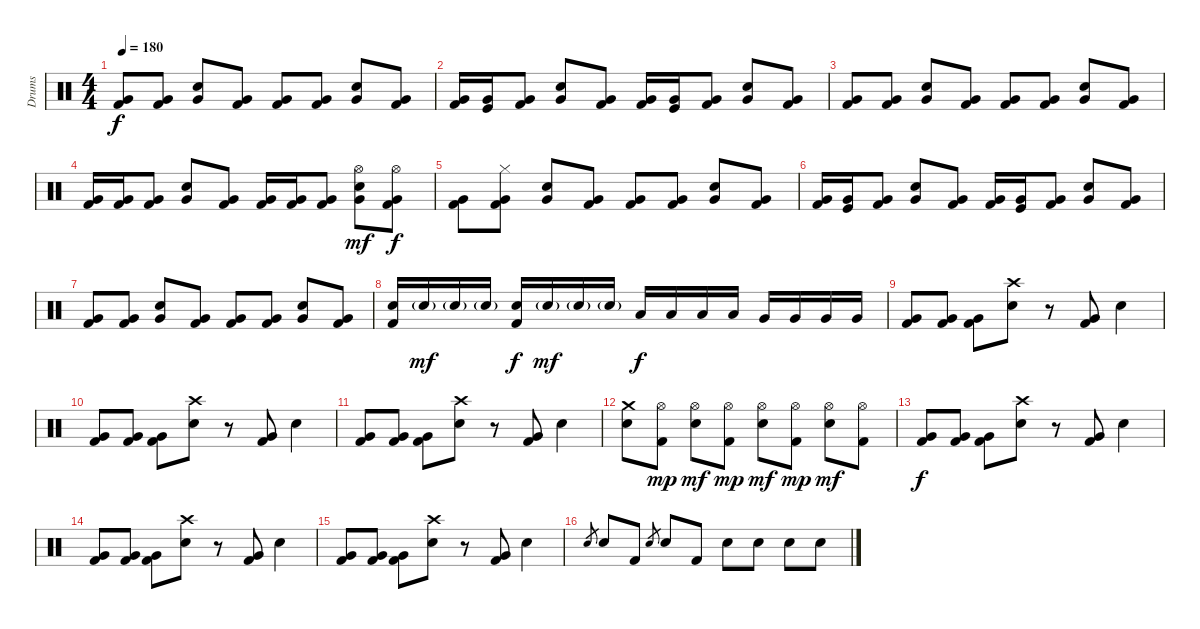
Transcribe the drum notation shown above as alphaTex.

\track ("Drums" "Drums") {instrument percussion}
\staff {score}
\articulation defaults
\ts (4 4)
\tempo 180
\clef neutral
\ks c
("Very Low Tom (hit)" "Kick (hit) 2").8{dy f} ("Very Low Tom (hit)" "Kick (hit) 2").8 ("Electric Snare (hit)" "Very Low Tom (hit)").8 ("Very Low Tom (hit)" "Kick (hit) 2").8 ("Very Low Tom (hit)" "Kick (hit) 2").8 ("Very Low Tom (hit)" "Kick (hit) 2").8 ("Electric Snare (hit)" "Very Low Tom (hit)").8 ("Very Low Tom (hit)" "Kick (hit) 2").8 |
("Very Low Tom (hit)" "Kick (hit) 2").16 ("Very Low Tom (hit)" "Kick (hit)").16 ("Very Low Tom (hit)" "Kick (hit) 2").8 ("Electric Snare (hit)" "Very Low Tom (hit)").8 ("Very Low Tom (hit)" "Kick (hit) 2").8 ("Very Low Tom (hit)" "Kick (hit) 2").16 ("Very Low Tom (hit)" "Kick (hit)").16 ("Very Low Tom (hit)" "Kick (hit) 2").8 ("Electric Snare (hit)" "Very Low Tom (hit)").8 ("Very Low Tom (hit)" "Kick (hit) 2").8 |
("Very Low Tom (hit)" "Kick (hit) 2").8 ("Very Low Tom (hit)" "Kick (hit) 2").8 ("Electric Snare (hit)" "Very Low Tom (hit)").8 ("Very Low Tom (hit)" "Kick (hit) 2").8 ("Very Low Tom (hit)" "Kick (hit) 2").8 ("Very Low Tom (hit)" "Kick (hit) 2").8 ("Electric Snare (hit)" "Very Low Tom (hit)").8 ("Very Low Tom (hit)" "Kick (hit) 2").8 |
("Very Low Tom (hit)" "Kick (hit) 2").16 ("Very Low Tom (hit)" "Kick (hit) 2").16 ("Very Low Tom (hit)" "Kick (hit) 2").8 ("Electric Snare (hit)" "Very Low Tom (hit)").8 ("Very Low Tom (hit)" "Kick (hit) 2").8 ("Very Low Tom (hit)" "Kick (hit) 2").16 ("Very Low Tom (hit)" "Kick (hit) 2").16 ("Very Low Tom (hit)" "Kick (hit) 2").8 ("Hi-Hat (open)" "Electric Snare (hit)" "Very Low Tom (hit)").8{dy mf} ("Hi-Hat (open)" "Very Low Tom (hit)" "Kick (hit) 2").8{dy f} |
("Very Low Tom (hit)" "Kick (hit) 2").8 ("Hi-Hat (closed)" "Very Low Tom (hit)" "Kick (hit) 2").8 ("Electric Snare (hit)" "Very Low Tom (hit)").8 ("Very Low Tom (hit)" "Kick (hit) 2").8 ("Very Low Tom (hit)" "Kick (hit) 2").8 ("Very Low Tom (hit)" "Kick (hit) 2").8 ("Electric Snare (hit)" "Very Low Tom (hit)").8 ("Very Low Tom (hit)" "Kick (hit) 2").8 |
("Very Low Tom (hit)" "Kick (hit) 2").16 ("Very Low Tom (hit)" "Kick (hit)").16 ("Very Low Tom (hit)" "Kick (hit) 2").8 ("Electric Snare (hit)" "Very Low Tom (hit)").8 ("Very Low Tom (hit)" "Kick (hit) 2").8 ("Very Low Tom (hit)" "Kick (hit) 2").16 ("Very Low Tom (hit)" "Kick (hit)").16 ("Very Low Tom (hit)" "Kick (hit) 2").8 ("Electric Snare (hit)" "Very Low Tom (hit)").8 ("Very Low Tom (hit)" "Kick (hit) 2").8 |
("Very Low Tom (hit)" "Kick (hit) 2").8 ("Very Low Tom (hit)" "Kick (hit) 2").8 ("Electric Snare (hit)" "Very Low Tom (hit)").8 ("Very Low Tom (hit)" "Kick (hit) 2").8 ("Very Low Tom (hit)" "Kick (hit) 2").8 ("Very Low Tom (hit)" "Kick (hit) 2").8 ("Electric Snare (hit)" "Very Low Tom (hit)").8 ("Very Low Tom (hit)" "Kick (hit) 2").8 |
("Electric Snare (hit)" "Kick (hit) 2").16 "Electric Snare (hit)"{g}.16{dy mf} "Electric Snare (hit)"{g}.16 "Electric Snare (hit)"{g}.16 ("Electric Snare (hit)" "Kick (hit) 2").16{dy f} "Electric Snare (hit)"{g}.16{dy mf} "Electric Snare (hit)"{g}.16 "Electric Snare (hit)"{g}.16 "Low Tom (hit)".16{dy f} "Low Tom (hit)".16 "Low Tom (hit)".16 "Low Tom (hit)".16 "Very Low Tom (hit)".16 "Very Low Tom (hit)".16 "Very Low Tom (hit)".16 "Very Low Tom (hit)".16 |
("Very Low Tom (hit)" "Kick (hit) 2").8 ("Very Low Tom (hit)" "Kick (hit) 2").8 ("Very Low Tom (hit)" "Kick (hit) 2").8 ("Crash high (hit)" "Electric Snare (hit)").8 r.8 ("Very Low Tom (hit)" "Kick (hit) 2").8 "Electric Snare (hit)".4 |
("Very Low Tom (hit)" "Kick (hit) 2").8 ("Very Low Tom (hit)" "Kick (hit) 2").8 ("Very Low Tom (hit)" "Kick (hit) 2").8 ("Crash high (hit)" "Electric Snare (hit)").8 r.8 ("Very Low Tom (hit)" "Kick (hit) 2").8 "Electric Snare (hit)".4 |
("Very Low Tom (hit)" "Kick (hit) 2").8 ("Very Low Tom (hit)" "Kick (hit) 2").8 ("Very Low Tom (hit)" "Kick (hit) 2").8 ("Crash high (hit)" "Electric Snare (hit)").8 r.8 ("Very Low Tom (hit)" "Kick (hit) 2").8 "Electric Snare (hit)".4 |
("Crash medium (hit)" "Electric Snare (hit)").8 ("Hi-Hat (open)" "Kick (hit) 2").8{dy mp} ("Hi-Hat (open)" "Electric Snare (hit)").8{dy mf} ("Hi-Hat (open)" "Kick (hit) 2").8{dy mp} ("Hi-Hat (open)" "Electric Snare (hit)").8{dy mf} ("Hi-Hat (open)" "Kick (hit) 2").8{dy mp} ("Hi-Hat (open)" "Electric Snare (hit)").8{dy mf} ("Hi-Hat (open)" "Kick (hit) 2").8 |
("Very Low Tom (hit)" "Kick (hit) 2").8{dy f} ("Very Low Tom (hit)" "Kick (hit) 2").8 ("Very Low Tom (hit)" "Kick (hit) 2").8 ("Crash high (hit)" "Electric Snare (hit)").8 r.8 ("Very Low Tom (hit)" "Kick (hit) 2").8 "Electric Snare (hit)".4 |
("Very Low Tom (hit)" "Kick (hit) 2").8 ("Very Low Tom (hit)" "Kick (hit) 2").8 ("Very Low Tom (hit)" "Kick (hit) 2").8 ("Crash high (hit)" "Electric Snare (hit)").8 r.8 ("Very Low Tom (hit)" "Kick (hit) 2").8 "Electric Snare (hit)".4 |
("Very Low Tom (hit)" "Kick (hit) 2").8 ("Very Low Tom (hit)" "Kick (hit) 2").8 ("Very Low Tom (hit)" "Kick (hit) 2").8 ("Crash high (hit)" "Electric Snare (hit)").8 r.8 ("Very Low Tom (hit)" "Kick (hit) 2").8 "Electric Snare (hit)".4 |
"Electric Snare (hit)".8{gr} "Electric Snare (hit)".8 "Kick (hit) 2".8 "Electric Snare (hit)".8{gr} "Electric Snare (hit)".8 "Kick (hit) 2".8 "Electric Snare (hit)".8 "Electric Snare (hit)".8 "Electric Snare (hit)".8 "Electric Snare (hit)".8
